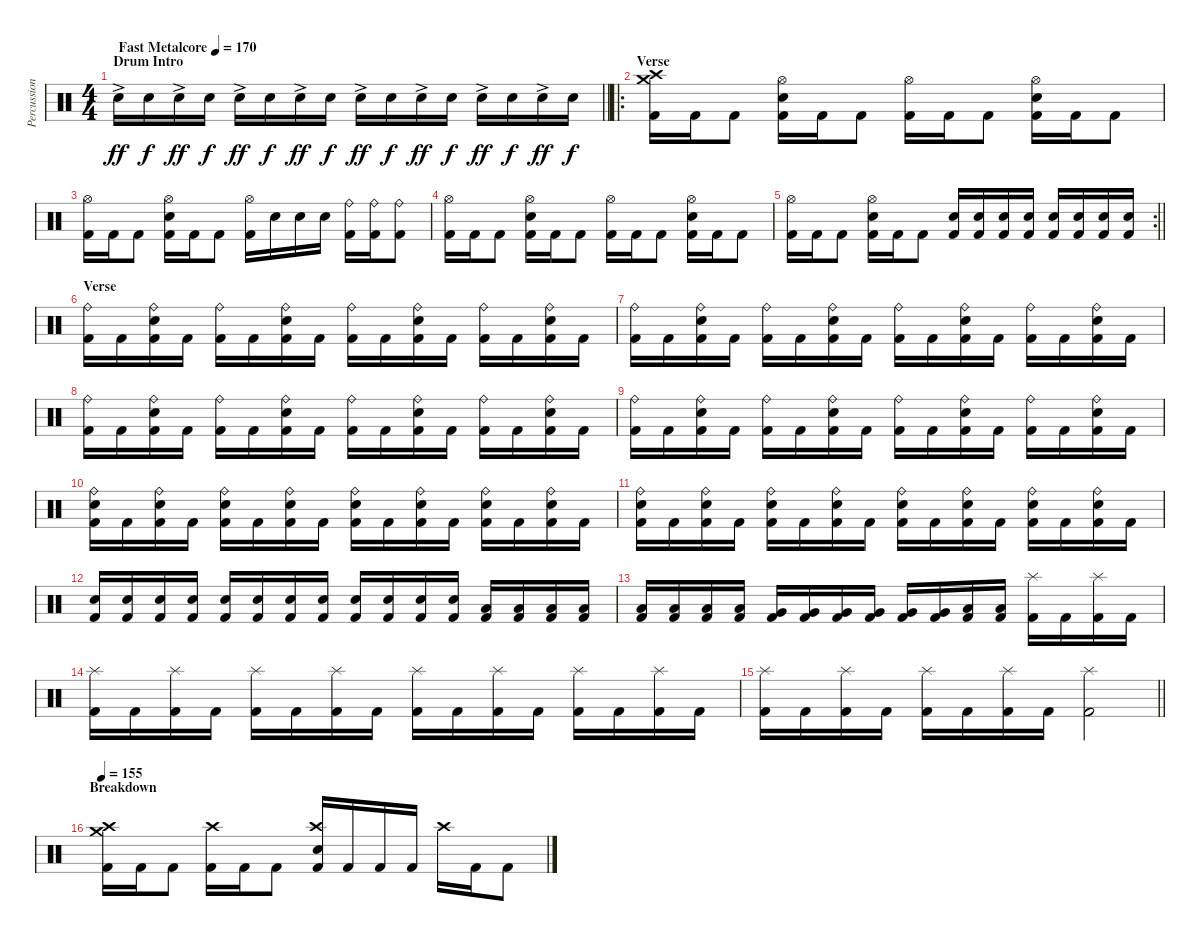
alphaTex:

\track ("Percussion" "Percussion") {instrument percussion}
\staff {score}
\articulation defaults
\ts (4 4)
\section ("" "Drum Intro")
\tempo (170 "Fast Metalcore")
\clef neutral
\barLineRight lightlight
\ks c "Electric Snare (hit)"{ac}.16{dy ff} "Electric Snare (hit)".16{dy f} "Electric Snare (hit)"{ac}.16{dy ff} "Electric Snare (hit)".16{dy f} "Electric Snare (hit)"{ac}.16{dy ff} "Electric Snare (hit)".16{dy f} "Electric Snare (hit)"{ac}.16{dy ff} "Electric Snare (hit)".16{dy f} "Electric Snare (hit)"{ac}.16{dy ff} "Electric Snare (hit)".16{dy f} "Electric Snare (hit)"{ac}.16{dy ff} "Electric Snare (hit)".16{dy f} "Electric Snare (hit)"{ac}.16{dy ff} "Electric Snare (hit)".16{dy f} "Electric Snare (hit)"{ac}.16{dy ff} "Electric Snare (hit)".16{dy f}
|
\ro
\section ("" "Verse")
("Crash medium (hit)" "Crash high (hit)" "Kick (hit) 2").16 "Kick (hit) 2".16 "Kick (hit) 2".8 ("Hi-Hat (open)" "Electric Snare (hit)" "Kick (hit) 2").16 "Kick (hit) 2".16 "Kick (hit) 2".8 ("Hi-Hat (open)" "Kick (hit) 2").16 "Kick (hit) 2".16 "Kick (hit) 2".8 ("Hi-Hat (open)" "Electric Snare (hit)" "Kick (hit) 2").16 "Kick (hit) 2".16 "Kick (hit) 2".8 |
("Hi-Hat (open)" "Kick (hit) 2").16 "Kick (hit) 2".16 "Kick (hit) 2".8 ("Hi-Hat (open)" "Electric Snare (hit)" "Kick (hit) 2").16 "Kick (hit) 2".16 "Kick (hit) 2".8 ("Hi-Hat (open)" "Kick (hit) 2").16 "Electric Snare (hit)".16 "Electric Snare (hit)".16 "Electric Snare (hit)".16 ("Ride (bell)" "Kick (hit) 2").16 ("Ride (bell)" "Kick (hit) 2").16 ("Ride (bell)" "Kick (hit) 2").8 |
("Hi-Hat (open)" "Kick (hit) 2").16 "Kick (hit) 2".16 "Kick (hit) 2".8 ("Hi-Hat (open)" "Electric Snare (hit)" "Kick (hit) 2").16 "Kick (hit) 2".16 "Kick (hit) 2".8 ("Hi-Hat (open)" "Kick (hit) 2").16 "Kick (hit) 2".16 "Kick (hit) 2".8 ("Hi-Hat (open)" "Electric Snare (hit)" "Kick (hit) 2").16 "Kick (hit) 2".16 "Kick (hit) 2".8 |
\rc 2
\barLineRight lightlight
("Hi-Hat (open)" "Kick (hit) 2").16 "Kick (hit) 2".16 "Kick (hit) 2".8 ("Hi-Hat (open)" "Electric Snare (hit)" "Kick (hit) 2").16 "Kick (hit) 2".16 "Kick (hit) 2".8 ("Electric Snare (hit)" "Kick (hit) 2").16 ("Electric Snare (hit)" "Kick (hit) 2").16 ("Electric Snare (hit)" "Kick (hit) 2").16 ("Electric Snare (hit)" "Kick (hit) 2").16 ("Electric Snare (hit)" "Kick (hit) 2").16 ("Electric Snare (hit)" "Kick (hit) 2").16 ("Electric Snare (hit)" "Kick (hit) 2").16 ("Electric Snare (hit)" "Kick (hit) 2").16 |
\section ("" "Verse")
("Ride (bell)" "Kick (hit) 2").16 "Kick (hit) 2".16 ("Ride (bell)" "Electric Snare (hit)" "Kick (hit) 2").16 "Kick (hit) 2".16 ("Ride (bell)" "Kick (hit) 2").16 "Kick (hit) 2".16 ("Ride (bell)" "Electric Snare (hit)" "Kick (hit) 2").16 "Kick (hit) 2".16 ("Ride (bell)" "Kick (hit) 2").16 "Kick (hit) 2".16 ("Ride (bell)" "Electric Snare (hit)" "Kick (hit) 2").16 "Kick (hit) 2".16 ("Ride (bell)" "Kick (hit) 2").16 "Kick (hit) 2".16 ("Ride (bell)" "Electric Snare (hit)" "Kick (hit) 2").16 "Kick (hit) 2".16 |
("Ride (bell)" "Kick (hit) 2").16 "Kick (hit) 2".16 ("Ride (bell)" "Electric Snare (hit)" "Kick (hit) 2").16 "Kick (hit) 2".16 ("Ride (bell)" "Kick (hit) 2").16 "Kick (hit) 2".16 ("Ride (bell)" "Electric Snare (hit)" "Kick (hit) 2").16 "Kick (hit) 2".16 ("Ride (bell)" "Kick (hit) 2").16 "Kick (hit) 2".16 ("Ride (bell)" "Electric Snare (hit)" "Kick (hit) 2").16 "Kick (hit) 2".16 ("Ride (bell)" "Kick (hit) 2").16 "Kick (hit) 2".16 ("Ride (bell)" "Electric Snare (hit)" "Kick (hit) 2").16 "Kick (hit) 2".16 |
("Ride (bell)" "Kick (hit) 2").16 "Kick (hit) 2".16 ("Ride (bell)" "Electric Snare (hit)" "Kick (hit) 2").16 "Kick (hit) 2".16 ("Ride (bell)" "Kick (hit) 2").16 "Kick (hit) 2".16 ("Ride (bell)" "Electric Snare (hit)" "Kick (hit) 2").16 "Kick (hit) 2".16 ("Ride (bell)" "Kick (hit) 2").16 "Kick (hit) 2".16 ("Ride (bell)" "Electric Snare (hit)" "Kick (hit) 2").16 "Kick (hit) 2".16 ("Ride (bell)" "Kick (hit) 2").16 "Kick (hit) 2".16 ("Ride (bell)" "Electric Snare (hit)" "Kick (hit) 2").16 "Kick (hit) 2".16 |
("Ride (bell)" "Kick (hit) 2").16 "Kick (hit) 2".16 ("Ride (bell)" "Electric Snare (hit)" "Kick (hit) 2").16 "Kick (hit) 2".16 ("Ride (bell)" "Kick (hit) 2").16 "Kick (hit) 2".16 ("Ride (bell)" "Electric Snare (hit)" "Kick (hit) 2").16 "Kick (hit) 2".16 ("Ride (bell)" "Kick (hit) 2").16 "Kick (hit) 2".16 ("Ride (bell)" "Electric Snare (hit)" "Kick (hit) 2").16 "Kick (hit) 2".16 ("Ride (bell)" "Kick (hit) 2").16 "Kick (hit) 2".16 ("Ride (bell)" "Electric Snare (hit)" "Kick (hit) 2").16 "Kick (hit) 2".16 |
("Ride (bell)" "Electric Snare (hit)" "Kick (hit) 2").16 "Kick (hit) 2".16 ("Ride (bell)" "Electric Snare (hit)" "Kick (hit) 2").16 "Kick (hit) 2".16 ("Ride (bell)" "Electric Snare (hit)" "Kick (hit) 2").16 "Kick (hit) 2".16 ("Ride (bell)" "Electric Snare (hit)" "Kick (hit) 2").16 "Kick (hit) 2".16 ("Ride (bell)" "Electric Snare (hit)" "Kick (hit) 2").16 "Kick (hit) 2".16 ("Ride (bell)" "Electric Snare (hit)" "Kick (hit) 2").16 "Kick (hit) 2".16 ("Ride (bell)" "Electric Snare (hit)" "Kick (hit) 2").16 "Kick (hit) 2".16 ("Ride (bell)" "Electric Snare (hit)" "Kick (hit) 2").16 "Kick (hit) 2".16 |
("Ride (bell)" "Electric Snare (hit)" "Kick (hit) 2").16 "Kick (hit) 2".16 ("Ride (bell)" "Electric Snare (hit)" "Kick (hit) 2").16 "Kick (hit) 2".16 ("Ride (bell)" "Electric Snare (hit)" "Kick (hit) 2").16 "Kick (hit) 2".16 ("Ride (bell)" "Electric Snare (hit)" "Kick (hit) 2").16 "Kick (hit) 2".16 ("Ride (bell)" "Electric Snare (hit)" "Kick (hit) 2").16 "Kick (hit) 2".16 ("Ride (bell)" "Electric Snare (hit)" "Kick (hit) 2").16 "Kick (hit) 2".16 ("Ride (bell)" "Electric Snare (hit)" "Kick (hit) 2").16 "Kick (hit) 2".16 ("Ride (bell)" "Electric Snare (hit)" "Kick (hit) 2").16 "Kick (hit) 2".16 |
("Electric Snare (hit)" "Kick (hit) 2").16 ("Electric Snare (hit)" "Kick (hit) 2").16 ("Electric Snare (hit)" "Kick (hit) 2").16 ("Electric Snare (hit)" "Kick (hit) 2").16 ("Electric Snare (hit)" "Kick (hit) 2").16 ("Electric Snare (hit)" "Kick (hit) 2").16 ("Electric Snare (hit)" "Kick (hit) 2").16 ("Electric Snare (hit)" "Kick (hit) 2").16 ("Electric Snare (hit)" "Kick (hit) 2").16 ("Electric Snare (hit)" "Kick (hit) 2").16 ("Electric Snare (hit)" "Kick (hit) 2").16 ("Electric Snare (hit)" "Kick (hit) 2").16 ("Low Tom (hit)" "Kick (hit) 2").16 ("Low Tom (hit)" "Kick (hit) 2").16 ("Low Tom (hit)" "Kick (hit) 2").16 ("Low Tom (hit)" "Kick (hit) 2").16 |
("Low Tom (hit)" "Kick (hit) 2").16 ("Low Tom (hit)" "Kick (hit) 2").16 ("Low Tom (hit)" "Kick (hit) 2").16 ("Low Tom (hit)" "Kick (hit) 2").16 ("Very Low Tom (hit)" "Kick (hit) 2").16 ("Very Low Tom (hit)" "Kick (hit) 2").16 ("Very Low Tom (hit)" "Kick (hit) 2").16 ("Very Low Tom (hit)" "Kick (hit) 2").16 ("Very Low Tom (hit)" "Kick (hit) 2").16 ("Very Low Tom (hit)" "Kick (hit) 2").16 ("Low Floor Tom (hit)" "Kick (hit) 2").16 ("Low Floor Tom (hit)" "Kick (hit) 2").16 ("Splash (hit)" "Kick (hit) 2").16 "Kick (hit) 2".16 ("Splash (hit)" "Kick (hit) 2").16 "Kick (hit) 2".16 |
("Splash (hit)" "Kick (hit) 2").16 "Kick (hit) 2".16 ("Splash (hit)" "Kick (hit) 2").16 "Kick (hit) 2".16 ("Splash (hit)" "Kick (hit) 2").16 "Kick (hit) 2".16 ("Splash (hit)" "Kick (hit) 2").16 "Kick (hit) 2".16 ("Splash (hit)" "Kick (hit) 2").16 "Kick (hit) 2".16 ("Splash (hit)" "Kick (hit) 2").16 "Kick (hit) 2".16 ("Splash (hit)" "Kick (hit) 2").16 "Kick (hit) 2".16 ("Splash (hit)" "Kick (hit) 2").16 "Kick (hit) 2".16 |
\barLineRight lightlight
("Splash (hit)" "Kick (hit) 2").16 "Kick (hit) 2".16 ("Splash (hit)" "Kick (hit) 2").16 "Kick (hit) 2".16 ("Splash (hit)" "Kick (hit) 2").16 "Kick (hit) 2".16 ("Splash (hit)" "Kick (hit) 2").16 "Kick (hit) 2".16 ("Splash (hit)" "Kick (hit) 2").2 |
\section ("" "Breakdown")
\tempo 155
("Crash medium (hit)" "Crash high (hit)" "Kick (hit) 2").16 "Kick (hit) 2".16 "Kick (hit) 2".8 ("Crash high (hit)" "Kick (hit) 2").16 "Kick (hit) 2".16 "Kick (hit) 2".8 ("Crash high (hit)" "Electric Snare (hit)" "Kick (hit) 2").16 "Kick (hit) 2".16 "Kick (hit) 2".16 "Kick (hit) 2".16 "Crash high (hit)".16 "Kick (hit) 2".16 "Kick (hit) 2".8
